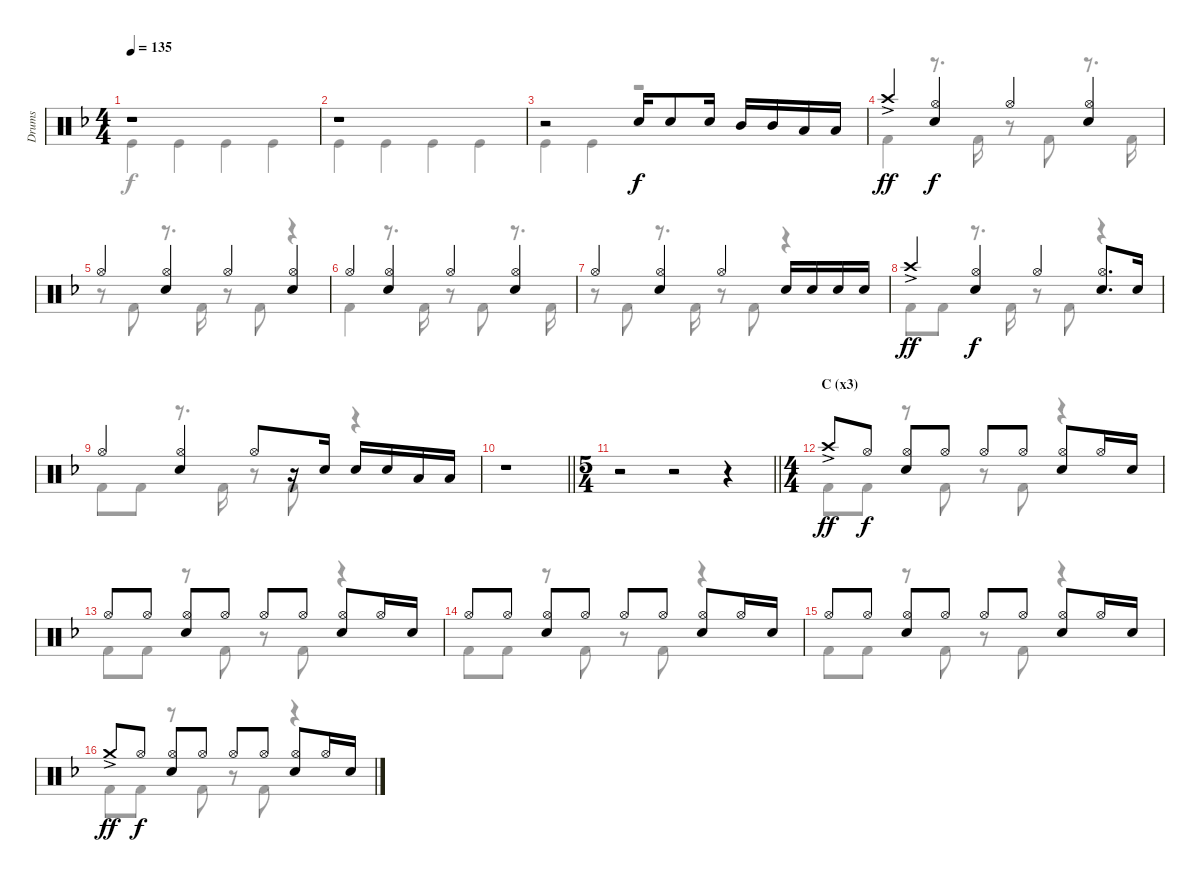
\track ("Drums" "Drums") {instrument percussion}
\staff {score}
\articulation defaults
\voice
\ts (4 4)
\tempo 135
\clef neutral
\ks f
r.1{dy f} |
r.1 |
r.2 "Snare (hit) 2".16 "Snare (hit) 2".8 "Snare (hit) 2".16 "Mid Tom (hit)".16 "Mid Tom (hit)".16 "Low Tom (hit)".16 "Low Tom (hit)".16 |
"Crash high (hit)"{ac}.4{dy ff} ("Hi-Hat (open)" "Snare (hit) 2").4{dy f} "Hi-Hat (open)".4 ("Hi-Hat (open)" "Snare (hit) 2").4 |
"Hi-Hat (open)".4 ("Hi-Hat (open)" "Snare (hit) 2").4 "Hi-Hat (open)".4 ("Hi-Hat (open)" "Snare (hit) 2").4 |
"Hi-Hat (open)".4 ("Hi-Hat (open)" "Snare (hit) 2").4 "Hi-Hat (open)".4 ("Hi-Hat (open)" "Snare (hit) 2").4 |
"Hi-Hat (open)".4 ("Hi-Hat (open)" "Snare (hit) 2").4 "Hi-Hat (open)".4 "Snare (hit) 2".16 "Snare (hit) 2".16 "Snare (hit) 2".16 "Snare (hit) 2".16 |
"Crash high (hit)"{ac}.4{dy ff} ("Hi-Hat (open)" "Snare (hit) 2").4{dy f} "Hi-Hat (open)".4 ("Hi-Hat (open)" "Snare (hit) 2").8{d} "Snare (hit) 2".16 |
"Hi-Hat (open)".4 ("Hi-Hat (open)" "Snare (hit) 2").4 "Hi-Hat (open)".8 r.16 "Snare (hit) 2".16 "Snare (hit) 2".16 "Snare (hit) 2".16 "Low Tom (hit)".16 "Low Tom (hit)".16 |
\barLineRight lightlight
r.1 |
\ts (5 4)
\barLineRight lightlight
r.2 r.2 r.4 |
\ts (4 4)
\section ("" "C (x3)")
"Crash high (hit)"{ac}.8{dy ff} "Hi-Hat (open)".8{dy f} ("Hi-Hat (open)" "Snare (hit) 2").8 "Hi-Hat (open)".8 "Hi-Hat (open)".8 "Hi-Hat (open)".8 ("Hi-Hat (open)" "Snare (hit) 2").8 "Hi-Hat (open)".16 "Snare (hit) 2".16 |
"Hi-Hat (open)".8 "Hi-Hat (open)".8 ("Hi-Hat (open)" "Snare (hit) 2").8 "Hi-Hat (open)".8 "Hi-Hat (open)".8 "Hi-Hat (open)".8 ("Hi-Hat (open)" "Snare (hit) 2").8 "Hi-Hat (open)".16 "Snare (hit) 2".16 |
"Hi-Hat (open)".8 "Hi-Hat (open)".8 ("Hi-Hat (open)" "Snare (hit) 2").8 "Hi-Hat (open)".8 "Hi-Hat (open)".8 "Hi-Hat (open)".8 ("Hi-Hat (open)" "Snare (hit) 2").8 "Hi-Hat (open)".16 "Snare (hit) 2".16 |
"Hi-Hat (open)".8 "Hi-Hat (open)".8 ("Hi-Hat (open)" "Snare (hit) 2").8 "Hi-Hat (open)".8 "Hi-Hat (open)".8 "Hi-Hat (open)".8 ("Hi-Hat (open)" "Snare (hit) 2").8 "Hi-Hat (open)".16 "Snare (hit) 2".16 |
"Crash medium (hit)"{ac}.8{dy ff} "Hi-Hat (open)".8{dy f} ("Hi-Hat (open)" "Snare (hit) 2").8 "Hi-Hat (open)".8 "Hi-Hat (open)".8 "Hi-Hat (open)".8 ("Hi-Hat (open)" "Snare (hit) 2").8 "Hi-Hat (open)".16 "Snare (hit) 2".16
\voice
\clef neutral
\ottava regular
\simile none
\ks f "Kick (hit)".4{dy f} "Kick (hit)".4 "Kick (hit)".4 "Kick (hit)".4
|
"Kick (hit)".4 "Kick (hit)".4 "Kick (hit)".4 "Kick (hit)".4 |
"Kick (hit)".4 "Kick (hit)".4 r.2 |
"Kick (hit) 2".4 r.8{d} "Kick (hit) 2".16 r.8 "Kick (hit) 2".8 r.8{d} "Kick (hit) 2".16 |
r.8 "Kick (hit) 2".8 r.8{d} "Kick (hit) 2".16 r.8 "Kick (hit) 2".8 r.4 |
"Kick (hit) 2".4 r.8{d} "Kick (hit) 2".16 r.8 "Kick (hit) 2".8 r.8{d} "Kick (hit) 2".16 |
r.8 "Kick (hit) 2".8 r.8{d} "Kick (hit) 2".16 r.8 "Kick (hit) 2".8 r.4 |
"Kick (hit) 2".8 "Kick (hit) 2".8 r.8{d} "Kick (hit) 2".16 r.8 "Kick (hit) 2".8 r.4 |
"Kick (hit) 2".8 "Kick (hit) 2".8 r.8{d} "Kick (hit) 2".16 r.8 "Kick (hit) 2".8 r.4 |
\barLineRight lightlight
|
\barLineRight lightlight
|
"Kick (hit) 2".8 "Kick (hit) 2".8 r.8 "Kick (hit) 2".8 r.8 "Kick (hit) 2".8 r.4 |
"Kick (hit) 2".8 "Kick (hit) 2".8 r.8 "Kick (hit) 2".8 r.8 "Kick (hit) 2".8 r.4 |
"Kick (hit) 2".8 "Kick (hit) 2".8 r.8 "Kick (hit) 2".8 r.8 "Kick (hit) 2".8 r.4 |
"Kick (hit) 2".8 "Kick (hit) 2".8 r.8 "Kick (hit) 2".8 r.8 "Kick (hit) 2".8 r.4 |
"Kick (hit) 2".8 "Kick (hit) 2".8 r.8 "Kick (hit) 2".8 r.8 "Kick (hit) 2".8 r.4
